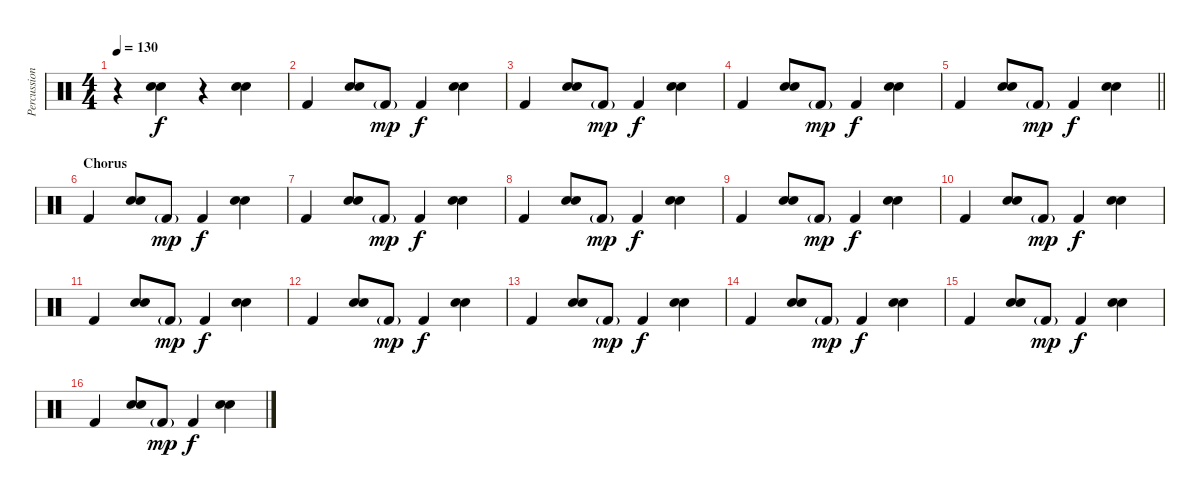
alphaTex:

\track ("Percussion" "Percussion") {instrument percussion}
\staff {score}
\articulation defaults
\ts (4 4)
\tempo 130
\clef neutral
\ks c
r.4{dy f} ("Snare (hit) 2" "Hand Clap (hit)").4 r.4 ("Snare (hit) 2" "Hand Clap (hit)").4 |
"Kick (hit) 2".4 ("Snare (hit) 2" "Hand Clap (hit)").8 "Kick (hit) 2"{g}.8{dy mp} "Kick (hit) 2".4{dy f} ("Snare (hit) 2" "Hand Clap (hit)").4 |
"Kick (hit) 2".4 ("Snare (hit) 2" "Hand Clap (hit)").8 "Kick (hit) 2"{g}.8{dy mp} "Kick (hit) 2".4{dy f} ("Snare (hit) 2" "Hand Clap (hit)").4 |
"Kick (hit) 2".4 ("Snare (hit) 2" "Hand Clap (hit)").8 "Kick (hit) 2"{g}.8{dy mp} "Kick (hit) 2".4{dy f} ("Snare (hit) 2" "Hand Clap (hit)").4 |
\barLineRight lightlight "Kick (hit) 2".4
("Snare (hit) 2" "Hand Clap (hit)").8 "Kick (hit) 2"{g}.8{dy mp} "Kick (hit) 2".4{dy f} ("Snare (hit) 2" "Hand Clap (hit)").4 |
\section ("" "Chorus")
"Kick (hit) 2".4 ("Snare (hit) 2" "Hand Clap (hit)").8 "Kick (hit) 2"{g}.8{dy mp} "Kick (hit) 2".4{dy f} ("Snare (hit) 2" "Hand Clap (hit)").4 |
"Kick (hit) 2".4 ("Snare (hit) 2" "Hand Clap (hit)").8 "Kick (hit) 2"{g}.8{dy mp} "Kick (hit) 2".4{dy f} ("Snare (hit) 2" "Hand Clap (hit)").4 |
"Kick (hit) 2".4 ("Snare (hit) 2" "Hand Clap (hit)").8 "Kick (hit) 2"{g}.8{dy mp} "Kick (hit) 2".4{dy f} ("Snare (hit) 2" "Hand Clap (hit)").4 |
"Kick (hit) 2".4 ("Snare (hit) 2" "Hand Clap (hit)").8 "Kick (hit) 2"{g}.8{dy mp} "Kick (hit) 2".4{dy f} ("Snare (hit) 2" "Hand Clap (hit)").4 |
"Kick (hit) 2".4 ("Snare (hit) 2" "Hand Clap (hit)").8 "Kick (hit) 2"{g}.8{dy mp} "Kick (hit) 2".4{dy f} ("Snare (hit) 2" "Hand Clap (hit)").4 |
"Kick (hit) 2".4 ("Snare (hit) 2" "Hand Clap (hit)").8 "Kick (hit) 2"{g}.8{dy mp} "Kick (hit) 2".4{dy f} ("Snare (hit) 2" "Hand Clap (hit)").4 |
"Kick (hit) 2".4 ("Snare (hit) 2" "Hand Clap (hit)").8 "Kick (hit) 2"{g}.8{dy mp} "Kick (hit) 2".4{dy f} ("Snare (hit) 2" "Hand Clap (hit)").4 |
"Kick (hit) 2".4 ("Snare (hit) 2" "Hand Clap (hit)").8 "Kick (hit) 2"{g}.8{dy mp} "Kick (hit) 2".4{dy f} ("Snare (hit) 2" "Hand Clap (hit)").4 |
"Kick (hit) 2".4 ("Snare (hit) 2" "Hand Clap (hit)").8 "Kick (hit) 2"{g}.8{dy mp} "Kick (hit) 2".4{dy f} ("Snare (hit) 2" "Hand Clap (hit)").4 |
"Kick (hit) 2".4 ("Snare (hit) 2" "Hand Clap (hit)").8 "Kick (hit) 2"{g}.8{dy mp} "Kick (hit) 2".4{dy f} ("Snare (hit) 2" "Hand Clap (hit)").4 |
"Kick (hit) 2".4 ("Snare (hit) 2" "Hand Clap (hit)").8 "Kick (hit) 2"{g}.8{dy mp} "Kick (hit) 2".4{dy f} ("Snare (hit) 2" "Hand Clap (hit)").4
